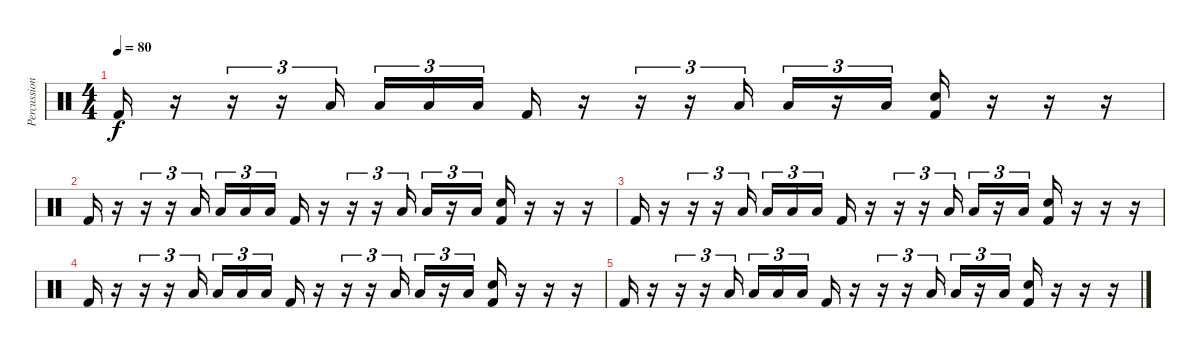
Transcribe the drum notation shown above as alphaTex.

\track ("Percussion" "Percussion") {instrument percussion}
\staff {score}
\articulation defaults
\ts (4 4)
\tempo 80
\clef neutral
\ks c "Kick (hit) 2".16{dy f}
r.16 r.16{tu (3 2)} r.16{tu (3 2)} "Low Floor Tom (hit)".16{tu (3 2) bd 60} "Low Floor Tom (hit)".16{tu (3 2) bu 60} "Low Floor Tom (hit)".16{tu (3 2) bd 60} "Low Floor Tom (hit)".16{tu (3 2) bu 60 beam splitsecondary} "Kick (hit) 2".16 r.16 r.16{tu (3 2)} r.16{tu (3 2)} "Low Floor Tom (hit)".16{tu (3 2) bd 60} "Low Floor Tom (hit)".16{tu (3 2) bu 60} r.16{tu (3 2)} "Low Floor Tom (hit)".16{tu (3 2) bu 60} ("Hand Clap (hit)" "Kick (hit) 2").16 r.16 r.16 r.16 |
"Kick (hit) 2".16 r.16 r.16{tu (3 2)} r.16{tu (3 2)} "Low Floor Tom (hit)".16{tu (3 2) bd 60} "Low Floor Tom (hit)".16{tu (3 2) bu 60} "Low Floor Tom (hit)".16{tu (3 2) bd 60} "Low Floor Tom (hit)".16{tu (3 2) bu 60 beam splitsecondary} "Kick (hit) 2".16 r.16 r.16{tu (3 2)} r.16{tu (3 2)} "Low Floor Tom (hit)".16{tu (3 2) bd 60} "Low Floor Tom (hit)".16{tu (3 2) bu 60} r.16{tu (3 2)} "Low Floor Tom (hit)".16{tu (3 2) bu 60} ("Hand Clap (hit)" "Kick (hit) 2").16 r.16 r.16 r.16 |
"Kick (hit) 2".16 r.16 r.16{tu (3 2)} r.16{tu (3 2)} "Low Floor Tom (hit)".16{tu (3 2) bd 60} "Low Floor Tom (hit)".16{tu (3 2) bu 60} "Low Floor Tom (hit)".16{tu (3 2) bd 60} "Low Floor Tom (hit)".16{tu (3 2) bu 60 beam splitsecondary} "Kick (hit) 2".16 r.16 r.16{tu (3 2)} r.16{tu (3 2)} "Low Floor Tom (hit)".16{tu (3 2) bd 60} "Low Floor Tom (hit)".16{tu (3 2) bu 60} r.16{tu (3 2)} "Low Floor Tom (hit)".16{tu (3 2) bu 60} ("Hand Clap (hit)" "Kick (hit) 2").16 r.16 r.16 r.16 |
"Kick (hit) 2".16 r.16 r.16{tu (3 2)} r.16{tu (3 2)} "Low Floor Tom (hit)".16{tu (3 2) bd 60} "Low Floor Tom (hit)".16{tu (3 2) bu 60} "Low Floor Tom (hit)".16{tu (3 2) bd 60} "Low Floor Tom (hit)".16{tu (3 2) bu 60 beam splitsecondary} "Kick (hit) 2".16 r.16 r.16{tu (3 2)} r.16{tu (3 2)} "Low Floor Tom (hit)".16{tu (3 2) bd 60} "Low Floor Tom (hit)".16{tu (3 2) bu 60} r.16{tu (3 2)} "Low Floor Tom (hit)".16{tu (3 2) bu 60} ("Hand Clap (hit)" "Kick (hit) 2").16 r.16 r.16 r.16 |
"Kick (hit) 2".16 r.16 r.16{tu (3 2)} r.16{tu (3 2)} "Low Floor Tom (hit)".16{tu (3 2) bd 60} "Low Floor Tom (hit)".16{tu (3 2) bu 60} "Low Floor Tom (hit)".16{tu (3 2) bd 60} "Low Floor Tom (hit)".16{tu (3 2) bu 60 beam splitsecondary} "Kick (hit) 2".16 r.16 r.16{tu (3 2)} r.16{tu (3 2)} "Low Floor Tom (hit)".16{tu (3 2) bd 60} "Low Floor Tom (hit)".16{tu (3 2) bu 60} r.16{tu (3 2)} "Low Floor Tom (hit)".16{tu (3 2) bu 60} ("Hand Clap (hit)" "Kick (hit) 2").16 r.16 r.16 r.16
